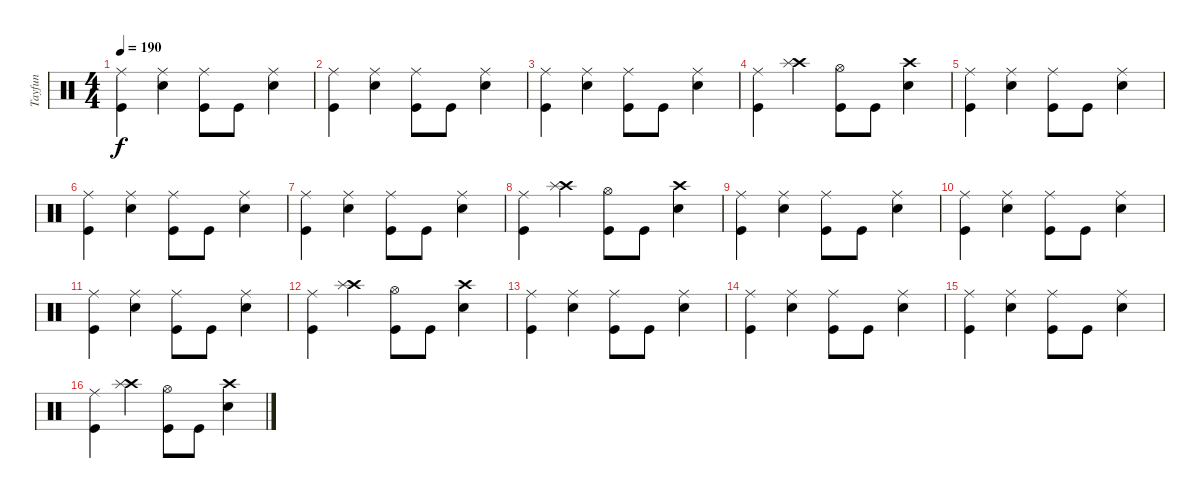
\track ("Tayfun" "Tayfun") {instrument percussion}
\staff {score}
\articulation defaults
\ts (4 4)
\tempo 190
\clef neutral
\ks c
("Ride (middle)" "Kick (hit)").4{dy f} ("Ride (middle)" "Snare (hit) 2").4 ("Ride (middle)" "Kick (hit)").8 "Kick (hit)".8 ("Ride (middle)" "Snare (hit) 2").4 |
("Ride (middle)" "Kick (hit)").4 ("Ride (middle)" "Snare (hit) 2").4 ("Ride (middle)" "Kick (hit)").8 "Kick (hit)".8 ("Ride (middle)" "Snare (hit) 2").4 |
("Ride (middle)" "Kick (hit)").4 ("Ride (middle)" "Snare (hit) 2").4 ("Ride (middle)" "Kick (hit)").8 "Kick (hit)".8 ("Ride (middle)" "Snare (hit) 2").4 |
("Ride (middle)" "Kick (hit)").4 ("Crash high (hit)" "Splash (hit)").4 ("Hi-Hat (open)" "Kick (hit)").8 "Kick (hit)".8 ("Crash high (hit)" "Snare (hit) 2").4 |
("Ride (middle)" "Kick (hit)").4 ("Ride (middle)" "Snare (hit) 2").4 ("Ride (middle)" "Kick (hit)").8 "Kick (hit)".8 ("Ride (middle)" "Snare (hit) 2").4 |
("Ride (middle)" "Kick (hit)").4 ("Ride (middle)" "Snare (hit) 2").4 ("Ride (middle)" "Kick (hit)").8 "Kick (hit)".8 ("Ride (middle)" "Snare (hit) 2").4 |
("Ride (middle)" "Kick (hit)").4 ("Ride (middle)" "Snare (hit) 2").4 ("Ride (middle)" "Kick (hit)").8 "Kick (hit)".8 ("Ride (middle)" "Snare (hit) 2").4 |
("Ride (middle)" "Kick (hit)").4 ("Crash high (hit)" "Splash (hit)").4 ("Hi-Hat (open)" "Kick (hit)").8 "Kick (hit)".8 ("Crash high (hit)" "Snare (hit) 2").4 |
("Ride (middle)" "Kick (hit)").4 ("Ride (middle)" "Snare (hit) 2").4 ("Ride (middle)" "Kick (hit)").8 "Kick (hit)".8 ("Ride (middle)" "Snare (hit) 2").4 |
("Ride (middle)" "Kick (hit)").4 ("Ride (middle)" "Snare (hit) 2").4 ("Ride (middle)" "Kick (hit)").8 "Kick (hit)".8 ("Ride (middle)" "Snare (hit) 2").4 |
("Ride (middle)" "Kick (hit)").4 ("Ride (middle)" "Snare (hit) 2").4 ("Ride (middle)" "Kick (hit)").8 "Kick (hit)".8 ("Ride (middle)" "Snare (hit) 2").4 |
("Ride (middle)" "Kick (hit)").4 ("Crash high (hit)" "Splash (hit)").4 ("Hi-Hat (open)" "Kick (hit)").8 "Kick (hit)".8 ("Crash high (hit)" "Snare (hit) 2").4 |
("Ride (middle)" "Kick (hit)").4 ("Ride (middle)" "Snare (hit) 2").4 ("Ride (middle)" "Kick (hit)").8 "Kick (hit)".8 ("Ride (middle)" "Snare (hit) 2").4 |
("Ride (middle)" "Kick (hit)").4 ("Ride (middle)" "Snare (hit) 2").4 ("Ride (middle)" "Kick (hit)").8 "Kick (hit)".8 ("Ride (middle)" "Snare (hit) 2").4 |
("Ride (middle)" "Kick (hit)").4 ("Ride (middle)" "Snare (hit) 2").4 ("Ride (middle)" "Kick (hit)").8 "Kick (hit)".8 ("Ride (middle)" "Snare (hit) 2").4 |
("Ride (middle)" "Kick (hit)").4 ("Crash high (hit)" "Splash (hit)").4 ("Hi-Hat (open)" "Kick (hit)").8 "Kick (hit)".8 ("Crash high (hit)" "Snare (hit) 2").4
